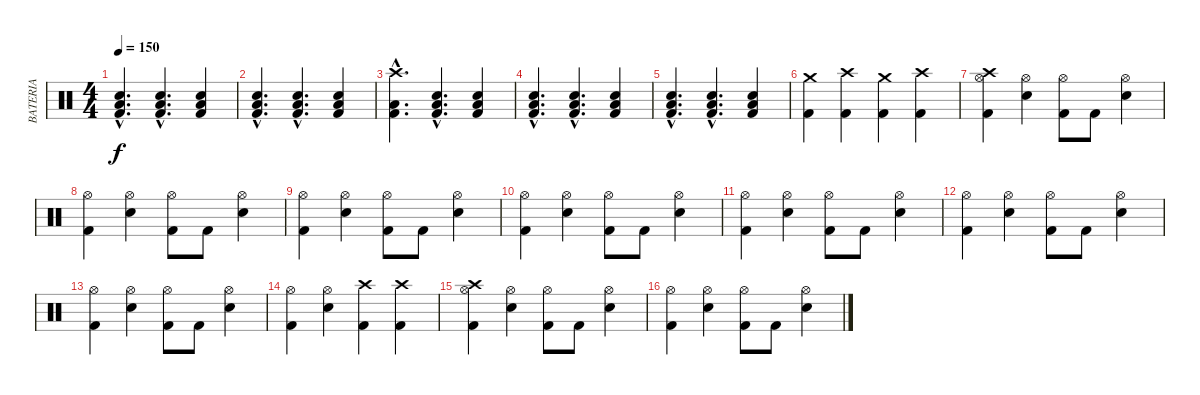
\track ("BATERIA" "BATERIA") {instrument percussion}
\staff {score}
\articulation defaults
\ts (4 4)
\tempo 150
\clef neutral
\ks c
("Snare (hit) 2"{hac} "Low Floor Tom (hit)"{hac} "Kick (hit) 2"{hac}).4{d dy f} ("Snare (hit) 2"{hac} "Low Floor Tom (hit)"{hac} "Kick (hit) 2"{hac}).4{d} ("Snare (hit) 2" "Low Floor Tom (hit)" "Kick (hit) 2").4 |
("Snare (hit) 2"{hac} "Low Floor Tom (hit)"{hac} "Kick (hit) 2"{hac}).4{d} ("Snare (hit) 2"{hac} "Low Floor Tom (hit)"{hac} "Kick (hit) 2"{hac}).4{d} ("Snare (hit) 2" "Low Floor Tom (hit)" "Kick (hit) 2").4 |
("Crash high (hit)"{hac} "Low Floor Tom (hit)"{hac} "Kick (hit) 2"{hac}).4{d} ("Snare (hit) 2"{hac} "Low Floor Tom (hit)"{hac} "Kick (hit) 2"{hac}).4{d} ("Snare (hit) 2" "Low Floor Tom (hit)" "Kick (hit) 2").4 |
("Snare (hit) 2"{hac} "Low Floor Tom (hit)"{hac} "Kick (hit) 2"{hac}).4{d} ("Snare (hit) 2"{hac} "Low Floor Tom (hit)"{hac} "Kick (hit) 2"{hac}).4{d} ("Snare (hit) 2" "Low Floor Tom (hit)" "Kick (hit) 2").4 |
("Snare (hit) 2"{hac} "Low Floor Tom (hit)"{hac} "Kick (hit) 2"{hac}).4{d} ("Snare (hit) 2"{hac} "Low Floor Tom (hit)"{hac} "Kick (hit) 2"{hac}).4{d} ("Snare (hit) 2" "Low Floor Tom (hit)" "Kick (hit) 2").4 |
("Crash medium (hit)" "Kick (hit) 2").4 ("Crash high (hit)" "Kick (hit) 2").4 ("Crash medium (hit)" "Kick (hit) 2").4 ("Crash high (hit)" "Kick (hit) 2").4 |
("Crash high (hit)" "Hi-Hat (open)" "Kick (hit) 2").4 ("Hi-Hat (open)" "Snare (hit) 2").4 ("Hi-Hat (open)" "Kick (hit) 2").8 "Kick (hit) 2".8 ("Hi-Hat (open)" "Snare (hit) 2").4 |
("Hi-Hat (open)" "Kick (hit) 2").4 ("Hi-Hat (open)" "Snare (hit) 2").4 ("Hi-Hat (open)" "Kick (hit) 2").8 "Kick (hit) 2".8 ("Hi-Hat (open)" "Snare (hit) 2").4 |
("Hi-Hat (open)" "Kick (hit) 2").4 ("Hi-Hat (open)" "Snare (hit) 2").4 ("Hi-Hat (open)" "Kick (hit) 2").8 "Kick (hit) 2".8 ("Hi-Hat (open)" "Snare (hit) 2").4 |
("Hi-Hat (open)" "Kick (hit) 2").4 ("Hi-Hat (open)" "Snare (hit) 2").4 ("Hi-Hat (open)" "Kick (hit) 2").8 "Kick (hit) 2".8 ("Hi-Hat (open)" "Snare (hit) 2").4 |
("Hi-Hat (open)" "Kick (hit) 2").4 ("Hi-Hat (open)" "Snare (hit) 2").4 ("Hi-Hat (open)" "Kick (hit) 2").8 "Kick (hit) 2".8 ("Hi-Hat (open)" "Snare (hit) 2").4 |
("Hi-Hat (open)" "Kick (hit) 2").4 ("Hi-Hat (open)" "Snare (hit) 2").4 ("Hi-Hat (open)" "Kick (hit) 2").8 "Kick (hit) 2".8 ("Hi-Hat (open)" "Snare (hit) 2").4 |
("Hi-Hat (open)" "Kick (hit) 2").4 ("Hi-Hat (open)" "Snare (hit) 2").4 ("Hi-Hat (open)" "Kick (hit) 2").8 "Kick (hit) 2".8 ("Hi-Hat (open)" "Snare (hit) 2").4 |
("Hi-Hat (open)" "Kick (hit) 2").4 ("Hi-Hat (open)" "Snare (hit) 2").4 ("Crash high (hit)" "Kick (hit) 2").4 ("Crash high (hit)" "Kick (hit) 2").4 |
("Crash high (hit)" "Hi-Hat (open)" "Kick (hit) 2").4 ("Hi-Hat (open)" "Snare (hit) 2").4 ("Hi-Hat (open)" "Kick (hit) 2").8 "Kick (hit) 2".8 ("Hi-Hat (open)" "Snare (hit) 2").4 |
("Hi-Hat (open)" "Kick (hit) 2").4 ("Hi-Hat (open)" "Snare (hit) 2").4 ("Hi-Hat (open)" "Kick (hit) 2").8 "Kick (hit) 2".8 ("Hi-Hat (open)" "Snare (hit) 2").4
